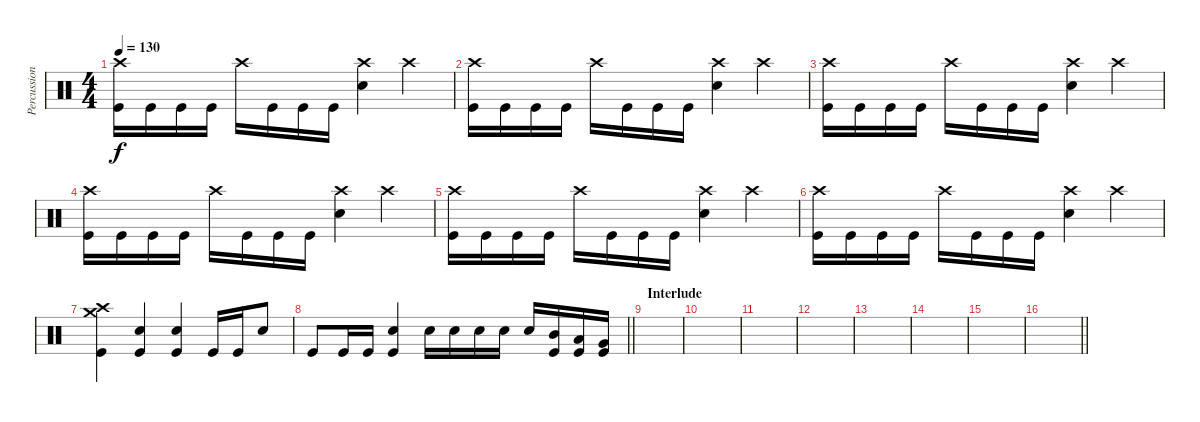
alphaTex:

\track ("Percussion" "Percussion") {instrument percussion}
\staff {score}
\articulation defaults
\ts (4 4)
\tempo 130
\clef neutral
\ks c
("Crash high (hit)" "Kick (hit)").16{dy f} "Kick (hit)".16 "Kick (hit)".16 "Kick (hit)".16 "Crash high (hit)".16 "Kick (hit)".16 "Kick (hit)".16 "Kick (hit)".16 ("Crash high (hit)" "Snare (hit) 2").4 "Crash high (hit)".4 |
("Crash high (hit)" "Kick (hit)").16 "Kick (hit)".16 "Kick (hit)".16 "Kick (hit)".16 "Crash high (hit)".16 "Kick (hit)".16 "Kick (hit)".16 "Kick (hit)".16 ("Crash high (hit)" "Snare (hit) 2").4 "Crash high (hit)".4 |
("Crash high (hit)" "Kick (hit)").16 "Kick (hit)".16 "Kick (hit)".16 "Kick (hit)".16 "Crash high (hit)".16 "Kick (hit)".16 "Kick (hit)".16 "Kick (hit)".16 ("Crash high (hit)" "Snare (hit) 2").4 "Crash high (hit)".4 |
("Crash high (hit)" "Kick (hit)").16 "Kick (hit)".16 "Kick (hit)".16 "Kick (hit)".16 "Crash high (hit)".16 "Kick (hit)".16 "Kick (hit)".16 "Kick (hit)".16 ("Crash high (hit)" "Snare (hit) 2").4 "Crash high (hit)".4 |
("Crash high (hit)" "Kick (hit)").16 "Kick (hit)".16 "Kick (hit)".16 "Kick (hit)".16 "Crash high (hit)".16 "Kick (hit)".16 "Kick (hit)".16 "Kick (hit)".16 ("Crash high (hit)" "Snare (hit) 2").4 "Crash high (hit)".4 |
("Crash high (hit)" "Kick (hit)").16 "Kick (hit)".16 "Kick (hit)".16 "Kick (hit)".16 "Crash high (hit)".16 "Kick (hit)".16 "Kick (hit)".16 "Kick (hit)".16 ("Crash high (hit)" "Snare (hit) 2").4 "Crash high (hit)".4 |
("Crash medium (hit)" "Crash high (hit)" "Kick (hit)").4 ("Snare (hit) 2" "Kick (hit)").4 ("Snare (hit) 2" "Kick (hit)").4 "Kick (hit)".16 "Kick (hit)".16 "Snare (hit) 2".8 |
\barLineRight lightlight "Kick (hit)".8 "Kick (hit)".16 "Kick (hit)".16
("Snare (hit) 2" "Kick (hit)").4 "Snare (hit) 2".16 "Snare (hit) 2".16 "Snare (hit) 2".16 "Snare (hit) 2".16 "Snare (hit) 2".16 ("Mid Tom (hit)" "Kick (hit)").16 ("Low Tom (hit)" "Kick (hit)").16 ("Very Low Tom (hit)" "Kick (hit)").16 |
\section ("" "Interlude")
|
|
|
|
|
|
|
\barLineRight lightlight
